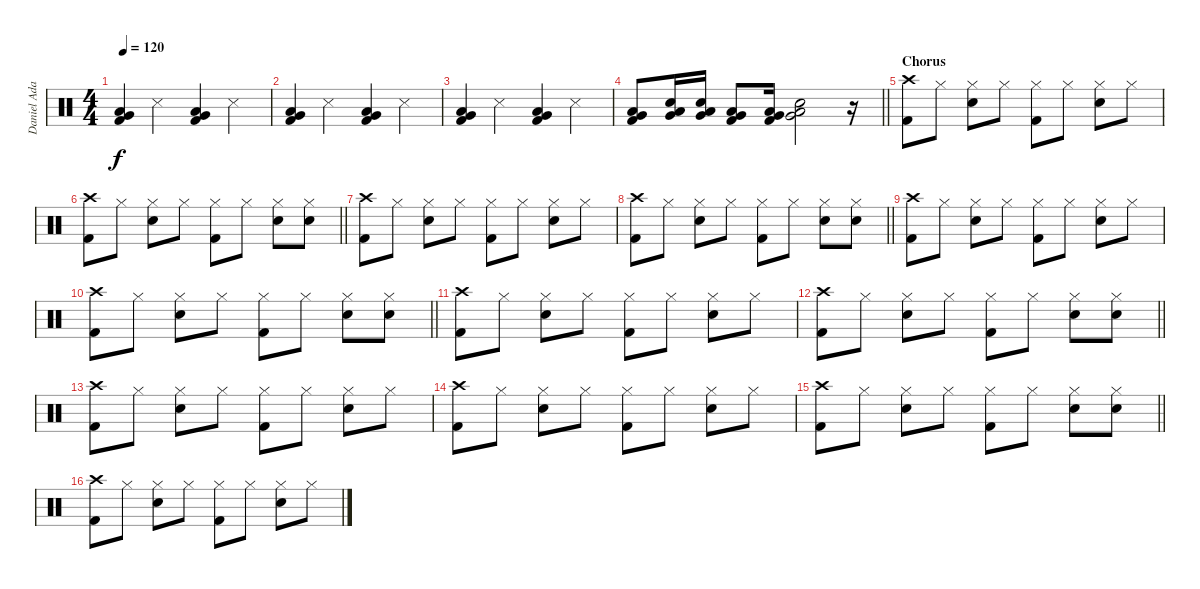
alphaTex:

\track ("Daniel Adair" "Daniel Ada") {instrument percussion}
\staff {score}
\articulation defaults
\ts (4 4)
\tempo 120
\clef neutral
\ks c
("Low Floor Tom (hit)" "Very Low Tom (hit)" "Kick (hit) 2").4{dy f} "Snare (side stick) 3".4 ("Low Floor Tom (hit)" "Very Low Tom (hit)" "Kick (hit) 2").4 "Snare (side stick) 3".4 |
("Low Floor Tom (hit)" "Very Low Tom (hit)" "Kick (hit) 2").4 "Snare (side stick) 3".4 ("Low Floor Tom (hit)" "Very Low Tom (hit)" "Kick (hit) 2").4 "Snare (side stick) 3".4 |
("Low Floor Tom (hit)" "Very Low Tom (hit)" "Kick (hit) 2").4 "Snare (side stick) 3".4 ("Low Floor Tom (hit)" "Very Low Tom (hit)" "Kick (hit) 2").4 "Snare (side stick) 3".4 |
\barLineRight lightlight
("Low Floor Tom (hit)" "Very Low Tom (hit)" "Kick (hit) 2").8 ("Very Low Tom (hit)" "Low Floor Tom (hit)" "Electric Snare (hit)").16 ("Very Low Tom (hit)" "Low Floor Tom (hit)" "Electric Snare (hit)").16 ("Very Low Tom (hit)" "Low Floor Tom (hit)" "Kick (hit) 2").8 ("Low Floor Tom (hit)" "Very Low Tom (hit)" "Kick (hit) 2").16 ("Low Floor Tom (hit)" "Very Low Tom (hit)" "Electric Snare (hit)").2 r.16 |
\section ("" "Chorus")
("Crash high (hit)" "Kick (hit) 2").8 "Hi-Hat (closed)".8 ("Hi-Hat (closed)" "Electric Snare (hit)").8 "Hi-Hat (closed)".8 ("Hi-Hat (closed)" "Kick (hit) 2").8 "Hi-Hat (closed)".8 ("Hi-Hat (closed)" "Electric Snare (hit)").8 "Hi-Hat (closed)".8 |
\barLineRight lightlight
("Crash high (hit)" "Kick (hit) 2").8 "Hi-Hat (closed)".8 ("Hi-Hat (closed)" "Electric Snare (hit)").8 "Hi-Hat (closed)".8 ("Hi-Hat (closed)" "Kick (hit) 2").8 "Hi-Hat (closed)".8 ("Hi-Hat (closed)" "Electric Snare (hit)").8 ("Hi-Hat (closed)" "Electric Snare (hit)").8 |
("Crash high (hit)" "Kick (hit) 2").8 "Hi-Hat (closed)".8 ("Hi-Hat (closed)" "Electric Snare (hit)").8 "Hi-Hat (closed)".8 ("Hi-Hat (closed)" "Kick (hit) 2").8 "Hi-Hat (closed)".8 ("Hi-Hat (closed)" "Electric Snare (hit)").8 "Hi-Hat (closed)".8 |
\barLineRight lightlight
("Crash high (hit)" "Kick (hit) 2").8 "Hi-Hat (closed)".8 ("Hi-Hat (closed)" "Electric Snare (hit)").8 "Hi-Hat (closed)".8 ("Hi-Hat (closed)" "Kick (hit) 2").8 "Hi-Hat (closed)".8 ("Hi-Hat (closed)" "Electric Snare (hit)").8 ("Hi-Hat (closed)" "Electric Snare (hit)").8 |
("Crash high (hit)" "Kick (hit) 2").8 "Hi-Hat (closed)".8 ("Hi-Hat (closed)" "Electric Snare (hit)").8 "Hi-Hat (closed)".8 ("Hi-Hat (closed)" "Kick (hit) 2").8 "Hi-Hat (closed)".8 ("Hi-Hat (closed)" "Electric Snare (hit)").8 "Hi-Hat (closed)".8 |
\barLineRight lightlight
("Crash high (hit)" "Kick (hit) 2").8 "Hi-Hat (closed)".8 ("Hi-Hat (closed)" "Electric Snare (hit)").8 "Hi-Hat (closed)".8 ("Hi-Hat (closed)" "Kick (hit) 2").8 "Hi-Hat (closed)".8 ("Hi-Hat (closed)" "Electric Snare (hit)").8 ("Hi-Hat (closed)" "Electric Snare (hit)").8 |
("Crash high (hit)" "Kick (hit) 2").8 "Hi-Hat (closed)".8 ("Hi-Hat (closed)" "Electric Snare (hit)").8 "Hi-Hat (closed)".8 ("Hi-Hat (closed)" "Kick (hit) 2").8 "Hi-Hat (closed)".8 ("Hi-Hat (closed)" "Electric Snare (hit)").8 "Hi-Hat (closed)".8 |
\barLineRight lightlight
("Crash high (hit)" "Kick (hit) 2").8 "Hi-Hat (closed)".8 ("Hi-Hat (closed)" "Electric Snare (hit)").8 "Hi-Hat (closed)".8 ("Hi-Hat (closed)" "Kick (hit) 2").8 "Hi-Hat (closed)".8 ("Hi-Hat (closed)" "Electric Snare (hit)").8 ("Hi-Hat (closed)" "Electric Snare (hit)").8 |
("Crash high (hit)" "Kick (hit) 2").8 "Hi-Hat (closed)".8 ("Hi-Hat (closed)" "Electric Snare (hit)").8 "Hi-Hat (closed)".8 ("Hi-Hat (closed)" "Kick (hit) 2").8 "Hi-Hat (closed)".8 ("Hi-Hat (closed)" "Electric Snare (hit)").8 "Hi-Hat (closed)".8 |
("Crash high (hit)" "Kick (hit) 2").8 "Hi-Hat (closed)".8 ("Hi-Hat (closed)" "Electric Snare (hit)").8 "Hi-Hat (closed)".8 ("Hi-Hat (closed)" "Kick (hit) 2").8 "Hi-Hat (closed)".8 ("Hi-Hat (closed)" "Electric Snare (hit)").8 "Hi-Hat (closed)".8 |
\barLineRight lightlight
("Crash high (hit)" "Kick (hit) 2").8 "Hi-Hat (closed)".8 ("Hi-Hat (closed)" "Electric Snare (hit)").8 "Hi-Hat (closed)".8 ("Hi-Hat (closed)" "Kick (hit) 2").8 "Hi-Hat (closed)".8 ("Hi-Hat (closed)" "Electric Snare (hit)").8 ("Hi-Hat (closed)" "Electric Snare (hit)").8 |
("Crash high (hit)" "Kick (hit) 2").8 "Hi-Hat (closed)".8 ("Hi-Hat (closed)" "Electric Snare (hit)").8 "Hi-Hat (closed)".8 ("Hi-Hat (closed)" "Kick (hit) 2").8 "Hi-Hat (closed)".8 ("Hi-Hat (closed)" "Electric Snare (hit)").8 "Hi-Hat (closed)".8
